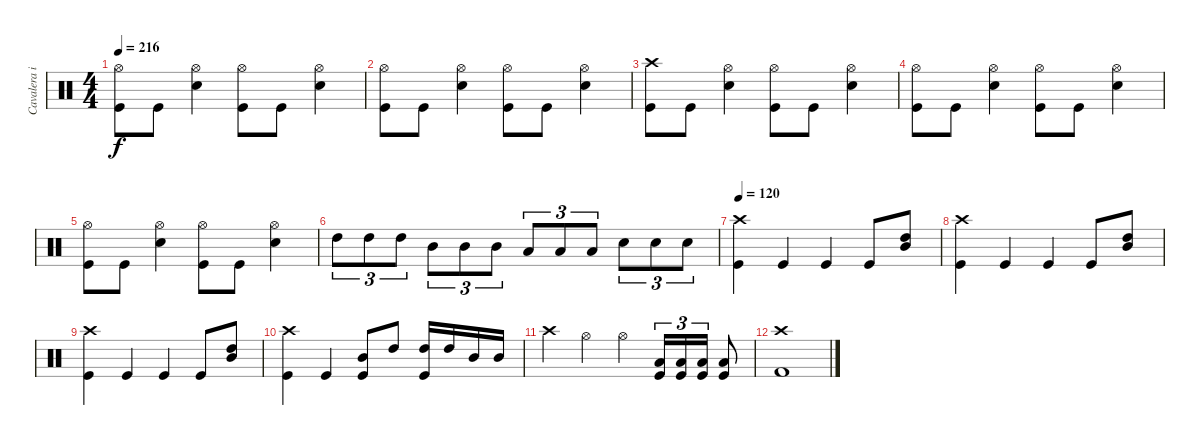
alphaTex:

\track ("Cavalera igor" "Cavalera i") {instrument percussion}
\staff {score}
\articulation defaults
\ts (4 4)
\tempo 216
\clef neutral
\ks c
("Hi-Hat (open)" "Kick (hit)").8{dy f} "Kick (hit)".8 ("Hi-Hat (open)" "Electric Snare (hit)").4 ("Hi-Hat (open)" "Kick (hit)").8 "Kick (hit)".8 ("Hi-Hat (open)" "Electric Snare (hit)").4 |
("Hi-Hat (open)" "Kick (hit)").8 "Kick (hit)".8 ("Hi-Hat (open)" "Electric Snare (hit)").4 ("Hi-Hat (open)" "Kick (hit)").8 "Kick (hit)".8 ("Hi-Hat (open)" "Electric Snare (hit)").4 |
("Crash high (hit)" "Kick (hit)").8 "Kick (hit)".8 ("Hi-Hat (open)" "Electric Snare (hit)").4 ("Hi-Hat (open)" "Kick (hit)").8 "Kick (hit)".8 ("Hi-Hat (open)" "Electric Snare (hit)").4 |
("Hi-Hat (open)" "Kick (hit)").8 "Kick (hit)".8 ("Hi-Hat (open)" "Electric Snare (hit)").4 ("Hi-Hat (open)" "Kick (hit)").8 "Kick (hit)".8 ("Hi-Hat (open)" "Electric Snare (hit)").4 |
("Hi-Hat (open)" "Kick (hit)").8 "Kick (hit)".8 ("Hi-Hat (open)" "Electric Snare (hit)").4 ("Hi-Hat (open)" "Kick (hit)").8 "Kick (hit)".8 ("Hi-Hat (open)" "Electric Snare (hit)").4 |
"High Tom (hit)".8{tu (3 2)} "High Tom (hit)".8{tu (3 2)} "High Tom (hit)".8{tu (3 2)} "Mid Tom (hit)".8{tu (3 2)} "Mid Tom (hit)".8{tu (3 2)} "Mid Tom (hit)".8{tu (3 2)} "Low Tom (hit)".8{tu (3 2)} "Low Tom (hit)".8{tu (3 2)} "Low Tom (hit)".8{tu (3 2)} "Electric Snare (hit)".8{tu (3 2)} "Electric Snare (hit)".8{tu (3 2)} "Electric Snare (hit)".8{tu (3 2)} |
\tempo 120
("Crash high (hit)" "Kick (hit)").4 "Kick (hit)".4 "Kick (hit)".4 "Kick (hit)".8 ("High Tom (hit)" "Mid Tom (hit)").8 |
("Crash high (hit)" "Kick (hit)").4 "Kick (hit)".4 "Kick (hit)".4 "Kick (hit)".8 ("High Tom (hit)" "Mid Tom (hit)").8 |
("Crash high (hit)" "Kick (hit)").4 "Kick (hit)".4 "Kick (hit)".4 "Kick (hit)".8 ("High Tom (hit)" "Mid Tom (hit)").8 |
("Crash high (hit)" "Kick (hit)").4 "Kick (hit)".4 ("Mid Tom (hit)" "Kick (hit)").8 "High Tom (hit)".8 ("High Tom (hit)" "Kick (hit)").16 "High Tom (hit)".16 "Mid Tom (hit)".16 "Mid Tom (hit)".16 |
"Crash high (hit)".4 "Hi-Hat (open)".4 "Hi-Hat (open)".4 ("Low Tom (hit)" "Kick (hit)").16{tu (3 2)} ("Low Tom (hit)" "Kick (hit)").16{tu (3 2)} ("Low Tom (hit)" "Kick (hit)").16{tu (3 2)} ("Low Tom (hit)" "Kick (hit)").8 |
("Crash high (hit)" "Kick (hit) 2").1
